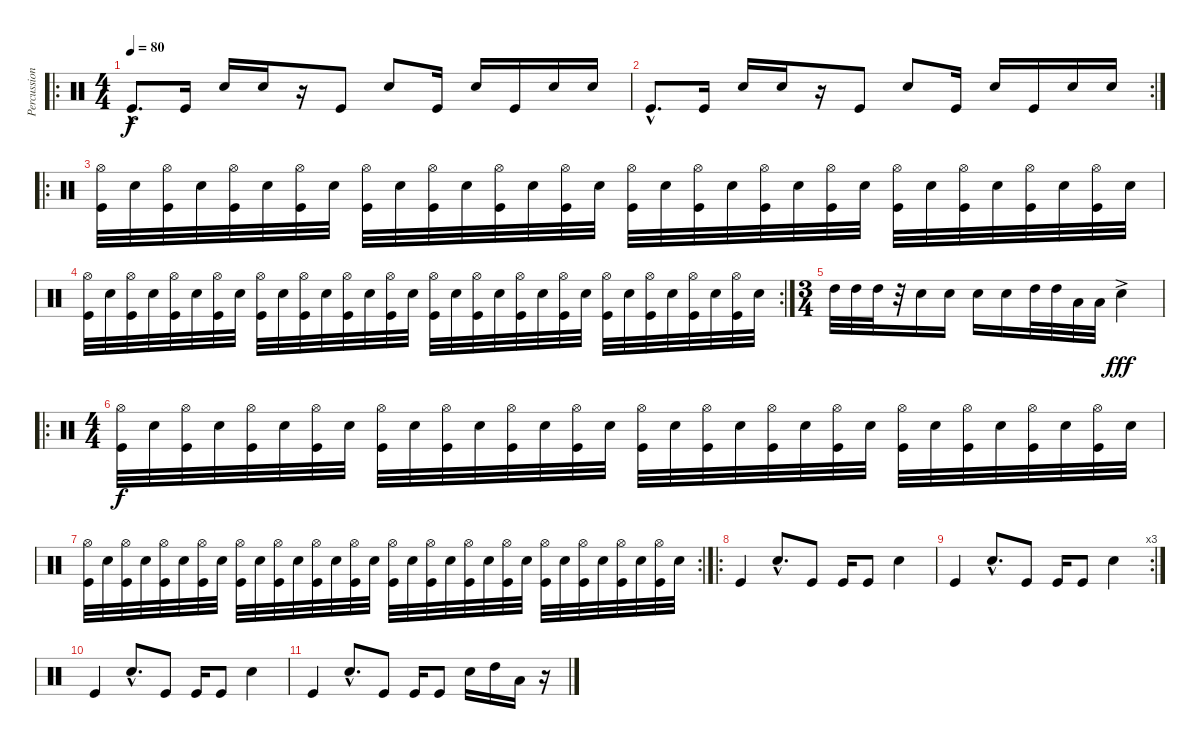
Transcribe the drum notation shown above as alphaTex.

\track ("Percussion" "Percussion") {instrument percussion}
\staff {score}
\articulation defaults
\ro
\ts (4 4)
\tempo 80
\clef neutral
\ks c "Kick (hit)"{hac}.8{d dy f} "Kick (hit)".16 "Snare (hit) 2".16 "Snare (hit) 2".16
r.16 "Kick (hit)".8 "Snare (hit) 2".8 "Kick (hit)".16 "Snare (hit) 2".16 "Kick (hit)".16 "Snare (hit) 2".16 "Snare (hit) 2".16 |
\rc 2 "Kick (hit)"{hac}.8{d} "Kick (hit)".16 "Snare (hit) 2".16 "Snare (hit) 2".16
r.16 "Kick (hit)".8 "Snare (hit) 2".8 "Kick (hit)".16 "Snare (hit) 2".16 "Kick (hit)".16 "Snare (hit) 2".16 "Snare (hit) 2".16 |
\ro
("Hi-Hat (open)" "Kick (hit)").32 "Snare (hit) 2".32 ("Hi-Hat (open)" "Kick (hit)").32 "Snare (hit) 2".32 ("Hi-Hat (open)" "Kick (hit)").32 "Snare (hit) 2".32 ("Hi-Hat (open)" "Kick (hit)").32 "Snare (hit) 2".32 ("Hi-Hat (open)" "Kick (hit)").32 "Snare (hit) 2".32 ("Hi-Hat (open)" "Kick (hit)").32 "Snare (hit) 2".32 ("Hi-Hat (open)" "Kick (hit)").32 "Snare (hit) 2".32 ("Hi-Hat (open)" "Kick (hit)").32 "Snare (hit) 2".32 ("Hi-Hat (open)" "Kick (hit)").32 "Snare (hit) 2".32 ("Hi-Hat (open)" "Kick (hit)").32 "Snare (hit) 2".32 ("Hi-Hat (open)" "Kick (hit)").32 "Snare (hit) 2".32 ("Hi-Hat (open)" "Kick (hit)").32 "Snare (hit) 2".32 ("Hi-Hat (open)" "Kick (hit)").32 "Snare (hit) 2".32 ("Hi-Hat (open)" "Kick (hit)").32 "Snare (hit) 2".32 ("Hi-Hat (open)" "Kick (hit)").32 "Snare (hit) 2".32 ("Hi-Hat (open)" "Kick (hit)").32 "Snare (hit) 2".32 |
\rc 2
("Hi-Hat (open)" "Kick (hit)").32 "Snare (hit) 2".32 ("Hi-Hat (open)" "Kick (hit)").32 "Snare (hit) 2".32 ("Hi-Hat (open)" "Kick (hit)").32 "Snare (hit) 2".32 ("Hi-Hat (open)" "Kick (hit)").32 "Snare (hit) 2".32 ("Hi-Hat (open)" "Kick (hit)").32 "Snare (hit) 2".32 ("Hi-Hat (open)" "Kick (hit)").32 "Snare (hit) 2".32 ("Hi-Hat (open)" "Kick (hit)").32 "Snare (hit) 2".32 ("Hi-Hat (open)" "Kick (hit)").32 "Snare (hit) 2".32 ("Hi-Hat (open)" "Kick (hit)").32 "Snare (hit) 2".32 ("Hi-Hat (open)" "Kick (hit)").32 "Snare (hit) 2".32 ("Hi-Hat (open)" "Kick (hit)").32 "Snare (hit) 2".32 ("Hi-Hat (open)" "Kick (hit)").32 "Snare (hit) 2".32 ("Hi-Hat (open)" "Kick (hit)").32 "Snare (hit) 2".32 ("Hi-Hat (open)" "Kick (hit)").32 "Snare (hit) 2".32 ("Hi-Hat (open)" "Kick (hit)").32 "Snare (hit) 2".32 ("Hi-Hat (open)" "Kick (hit)").32 "Snare (hit) 2".32 |
\ts (3 4)
"High Tom (hit)".32 "High Tom (hit)".32 "High Tom (hit)".32 r.32 "Snare (hit) 2".16 "Snare (hit) 2".16 "Snare (hit) 2".16 "Snare (hit) 2".16 "High Tom (hit)".32 "High Tom (hit)".32 "Low Tom (hit)".32 "Low Tom (hit)".32 "Snare (hit) 2"{ac}.4{dy fff} |
\ro
\ts (4 4)
("Hi-Hat (open)" "Kick (hit)").32{dy f} "Snare (hit) 2".32 ("Hi-Hat (open)" "Kick (hit)").32 "Snare (hit) 2".32 ("Hi-Hat (open)" "Kick (hit)").32 "Snare (hit) 2".32 ("Hi-Hat (open)" "Kick (hit)").32 "Snare (hit) 2".32 ("Hi-Hat (open)" "Kick (hit)").32 "Snare (hit) 2".32 ("Hi-Hat (open)" "Kick (hit)").32 "Snare (hit) 2".32 ("Hi-Hat (open)" "Kick (hit)").32 "Snare (hit) 2".32 ("Hi-Hat (open)" "Kick (hit)").32 "Snare (hit) 2".32 ("Hi-Hat (open)" "Kick (hit)").32 "Snare (hit) 2".32 ("Hi-Hat (open)" "Kick (hit)").32 "Snare (hit) 2".32 ("Hi-Hat (open)" "Kick (hit)").32 "Snare (hit) 2".32 ("Hi-Hat (open)" "Kick (hit)").32 "Snare (hit) 2".32 ("Hi-Hat (open)" "Kick (hit)").32 "Snare (hit) 2".32 ("Hi-Hat (open)" "Kick (hit)").32 "Snare (hit) 2".32 ("Hi-Hat (open)" "Kick (hit)").32 "Snare (hit) 2".32 ("Hi-Hat (open)" "Kick (hit)").32 "Snare (hit) 2".32 |
\rc 2
("Hi-Hat (open)" "Kick (hit)").32 "Snare (hit) 2".32 ("Hi-Hat (open)" "Kick (hit)").32 "Snare (hit) 2".32 ("Hi-Hat (open)" "Kick (hit)").32 "Snare (hit) 2".32 ("Hi-Hat (open)" "Kick (hit)").32 "Snare (hit) 2".32 ("Hi-Hat (open)" "Kick (hit)").32 "Snare (hit) 2".32 ("Hi-Hat (open)" "Kick (hit)").32 "Snare (hit) 2".32 ("Hi-Hat (open)" "Kick (hit)").32 "Snare (hit) 2".32 ("Hi-Hat (open)" "Kick (hit)").32 "Snare (hit) 2".32 ("Hi-Hat (open)" "Kick (hit)").32 "Snare (hit) 2".32 ("Hi-Hat (open)" "Kick (hit)").32 "Snare (hit) 2".32 ("Hi-Hat (open)" "Kick (hit)").32 "Snare (hit) 2".32 ("Hi-Hat (open)" "Kick (hit)").32 "Snare (hit) 2".32 ("Hi-Hat (open)" "Kick (hit)").32 "Snare (hit) 2".32 ("Hi-Hat (open)" "Kick (hit)").32 "Snare (hit) 2".32 ("Hi-Hat (open)" "Kick (hit)").32 "Snare (hit) 2".32 ("Hi-Hat (open)" "Kick (hit)").32 "Snare (hit) 2".32 |
\ro "Kick (hit)".4 "Snare (hit) 2"{hac}.8{d} "Kick (hit)".8 "Kick (hit)".16 "Kick (hit)".8 "Snare (hit) 2".4
|
\rc 3 "Kick (hit)".4 "Snare (hit) 2"{hac}.8{d} "Kick (hit)".8 "Kick (hit)".16 "Kick (hit)".8 "Snare (hit) 2".4
|
"Kick (hit)".4 "Snare (hit) 2"{hac}.8{d} "Kick (hit)".8 "Kick (hit)".16 "Kick (hit)".8 "Snare (hit) 2".4 |
"Kick (hit)".4 "Snare (hit) 2"{hac}.8{d} "Kick (hit)".8 "Kick (hit)".16 "Kick (hit)".8 "Snare (hit) 2".16 "High Tom (hit)".16 "Low Floor Tom (hit)".16 r.16
